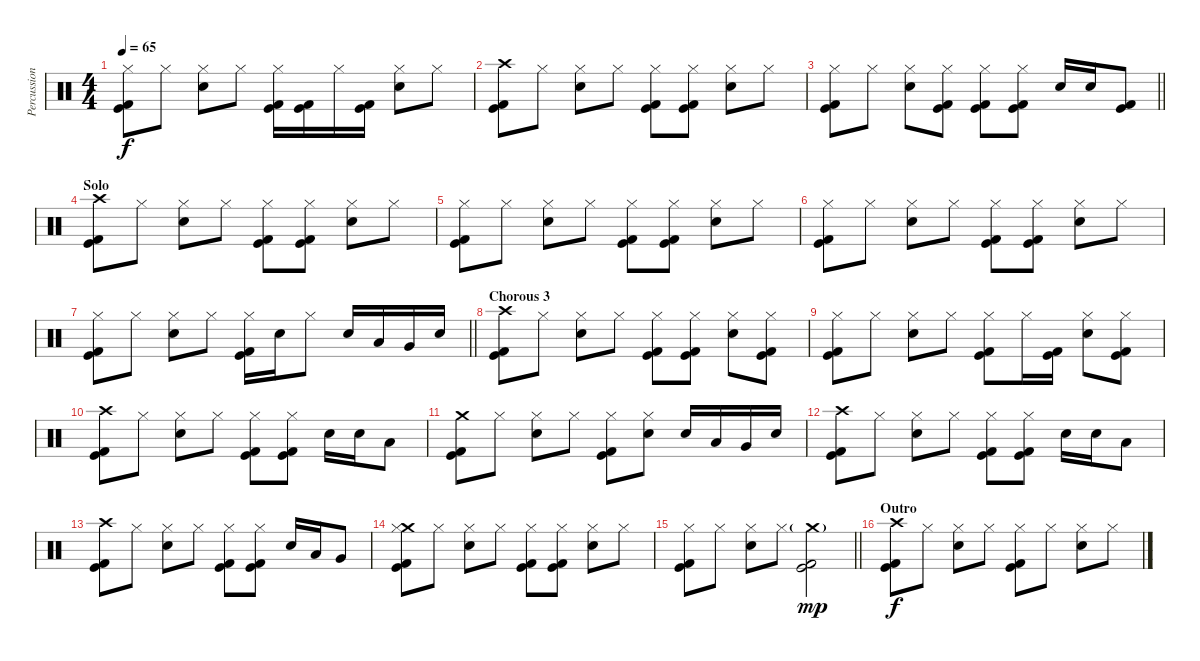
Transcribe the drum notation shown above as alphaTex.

\track ("Percussion" "Percussion") {instrument percussion}
\staff {score}
\articulation defaults
\ts (4 4)
\tempo 65
\clef neutral
\ks c
("Hi-Hat (closed)" "Kick (hit)" "Kick (hit) 2").8{dy f} "Hi-Hat (closed)".8 ("Hi-Hat (closed)" "Electric Snare (hit)").8 "Hi-Hat (closed)".8 ("Hi-Hat (closed)" "Kick (hit)" "Kick (hit) 2").16 ("Kick (hit)" "Kick (hit) 2").16 "Hi-Hat (closed)".16 ("Kick (hit)" "Kick (hit) 2").16 ("Hi-Hat (closed)" "Electric Snare (hit)").8 "Hi-Hat (closed)".8 |
("Crash high (hit)" "Kick (hit)" "Kick (hit) 2").8 "Hi-Hat (closed)".8 ("Hi-Hat (closed)" "Electric Snare (hit)").8 "Hi-Hat (closed)".8 ("Hi-Hat (closed)" "Kick (hit)" "Kick (hit) 2").8 ("Hi-Hat (closed)" "Kick (hit)" "Kick (hit) 2").8 ("Hi-Hat (closed)" "Electric Snare (hit)").8 "Hi-Hat (closed)".8 |
\barLineRight lightlight
("Hi-Hat (closed)" "Kick (hit)" "Kick (hit) 2").8 "Hi-Hat (closed)".8 ("Hi-Hat (closed)" "Electric Snare (hit)").8 ("Hi-Hat (closed)" "Kick (hit)" "Kick (hit) 2").8 ("Hi-Hat (closed)" "Kick (hit)" "Kick (hit) 2").8 ("Hi-Hat (closed)" "Kick (hit)" "Kick (hit) 2").8 "Electric Snare (hit)".16 "Electric Snare (hit)".16 ("Kick (hit)" "Kick (hit) 2").8 |
\section ("" "Solo")
("Crash high (hit)" "Kick (hit)" "Kick (hit) 2").8 "Hi-Hat (closed)".8 ("Hi-Hat (closed)" "Electric Snare (hit)").8 "Hi-Hat (closed)".8 ("Hi-Hat (closed)" "Kick (hit)" "Kick (hit) 2").8 ("Hi-Hat (closed)" "Kick (hit)" "Kick (hit) 2").8 ("Hi-Hat (closed)" "Electric Snare (hit)").8 "Hi-Hat (closed)".8 |
("Hi-Hat (closed)" "Kick (hit)" "Kick (hit) 2").8 "Hi-Hat (closed)".8 ("Hi-Hat (closed)" "Electric Snare (hit)").8 "Hi-Hat (closed)".8 ("Hi-Hat (closed)" "Kick (hit)" "Kick (hit) 2").8 ("Hi-Hat (closed)" "Kick (hit)" "Kick (hit) 2").8 ("Hi-Hat (closed)" "Electric Snare (hit)").8 "Hi-Hat (closed)".8 |
("Hi-Hat (closed)" "Kick (hit)" "Kick (hit) 2").8 "Hi-Hat (closed)".8 ("Hi-Hat (closed)" "Electric Snare (hit)").8 "Hi-Hat (closed)".8 ("Hi-Hat (closed)" "Kick (hit)" "Kick (hit) 2").8 ("Hi-Hat (closed)" "Kick (hit)" "Kick (hit) 2").8 ("Hi-Hat (closed)" "Electric Snare (hit)").8 "Hi-Hat (closed)".8 |
\barLineRight lightlight
("Hi-Hat (closed)" "Kick (hit)" "Kick (hit) 2").8 "Hi-Hat (closed)".8 ("Hi-Hat (closed)" "Electric Snare (hit)").8 "Hi-Hat (closed)".8 ("Hi-Hat (closed)" "Kick (hit)" "Kick (hit) 2").16 "Electric Snare (hit)".16 "Hi-Hat (closed)".8 "Electric Snare (hit)".16 "Low Tom (hit)".16 "Very Low Tom (hit)".16 "Electric Snare (hit)".16 |
\section ("" "Chorous 3")
("Crash high (hit)" "Kick (hit)" "Kick (hit) 2").8 "Hi-Hat (closed)".8 ("Hi-Hat (closed)" "Electric Snare (hit)").8 "Hi-Hat (closed)".8 ("Hi-Hat (closed)" "Kick (hit)" "Kick (hit) 2").8 ("Hi-Hat (closed)" "Kick (hit)" "Kick (hit) 2").8 ("Hi-Hat (closed)" "Electric Snare (hit)").8 ("Hi-Hat (closed)" "Kick (hit)" "Kick (hit) 2").8 |
("Hi-Hat (closed)" "Kick (hit)" "Kick (hit) 2").8 "Hi-Hat (closed)".8 ("Hi-Hat (closed)" "Electric Snare (hit)").8 "Hi-Hat (closed)".8 ("Hi-Hat (closed)" "Kick (hit)" "Kick (hit) 2").8 "Hi-Hat (closed)".16 ("Kick (hit)" "Kick (hit) 2").16 ("Hi-Hat (closed)" "Electric Snare (hit)").8 ("Hi-Hat (closed)" "Kick (hit)" "Kick (hit) 2").8 |
("Crash high (hit)" "Kick (hit)" "Kick (hit) 2").8 "Hi-Hat (closed)".8 ("Hi-Hat (closed)" "Electric Snare (hit)").8 "Hi-Hat (closed)".8 ("Hi-Hat (closed)" "Kick (hit)" "Kick (hit) 2").8 ("Hi-Hat (closed)" "Kick (hit)" "Kick (hit) 2").8 "Electric Snare (hit)".16 "Electric Snare (hit)".16 "Low Tom (hit)".8 |
("Crash medium (hit)" "Kick (hit)" "Kick (hit) 2").8 "Hi-Hat (closed)".8 ("Hi-Hat (closed)" "Electric Snare (hit)").8 "Hi-Hat (closed)".8 ("Hi-Hat (closed)" "Kick (hit)" "Kick (hit) 2").8 ("Hi-Hat (closed)" "Electric Snare (hit)").8 "Electric Snare (hit)".16 "Low Tom (hit)".16 "Very Low Tom (hit)".16 "Electric Snare (hit)".16 |
("Crash high (hit)" "Kick (hit)" "Kick (hit) 2").8 "Hi-Hat (closed)".8 ("Hi-Hat (closed)" "Electric Snare (hit)").8 "Hi-Hat (closed)".8 ("Hi-Hat (closed)" "Kick (hit)" "Kick (hit) 2").8 ("Hi-Hat (closed)" "Kick (hit)" "Kick (hit) 2").8 "Electric Snare (hit)".16 "Electric Snare (hit)".16 "Low Tom (hit)".8 |
("Crash high (hit)" "Kick (hit)" "Kick (hit) 2").8 "Hi-Hat (closed)".8 ("Hi-Hat (closed)" "Electric Snare (hit)").8 "Hi-Hat (closed)".8 ("Hi-Hat (closed)" "Kick (hit)" "Kick (hit) 2").8 ("Hi-Hat (closed)" "Kick (hit)" "Kick (hit) 2").8 "Electric Snare (hit)".16 "Low Tom (hit)".16 "Very Low Tom (hit)".8 |
("Crash medium (hit)" "Hi-Hat (closed)" "Kick (hit)" "Kick (hit) 2").8 "Hi-Hat (closed)".8 ("Hi-Hat (closed)" "Electric Snare (hit)").8 "Hi-Hat (closed)".8 ("Hi-Hat (closed)" "Kick (hit)" "Kick (hit) 2").8 ("Hi-Hat (closed)" "Kick (hit)" "Kick (hit) 2").8 ("Hi-Hat (closed)" "Electric Snare (hit)").8 "Hi-Hat (closed)".8 |
\barLineRight lightlight
("Hi-Hat (closed)" "Kick (hit)" "Kick (hit) 2").8 "Hi-Hat (closed)".8 ("Hi-Hat (closed)" "Electric Snare (hit)").8 "Hi-Hat (closed)".8 ("Crash medium (hit)"{g} "Kick (hit)" "Kick (hit) 2").2{dy mp} |
\section ("" "Outro")
("Crash high (hit)" "Kick (hit)" "Kick (hit) 2").8{dy f} "Hi-Hat (closed)".8 ("Hi-Hat (closed)" "Electric Snare (hit)").8 "Hi-Hat (closed)".8 ("Hi-Hat (closed)" "Kick (hit)" "Kick (hit) 2").8 "Hi-Hat (closed)".8 ("Hi-Hat (closed)" "Electric Snare (hit)").8 "Hi-Hat (closed)".8
